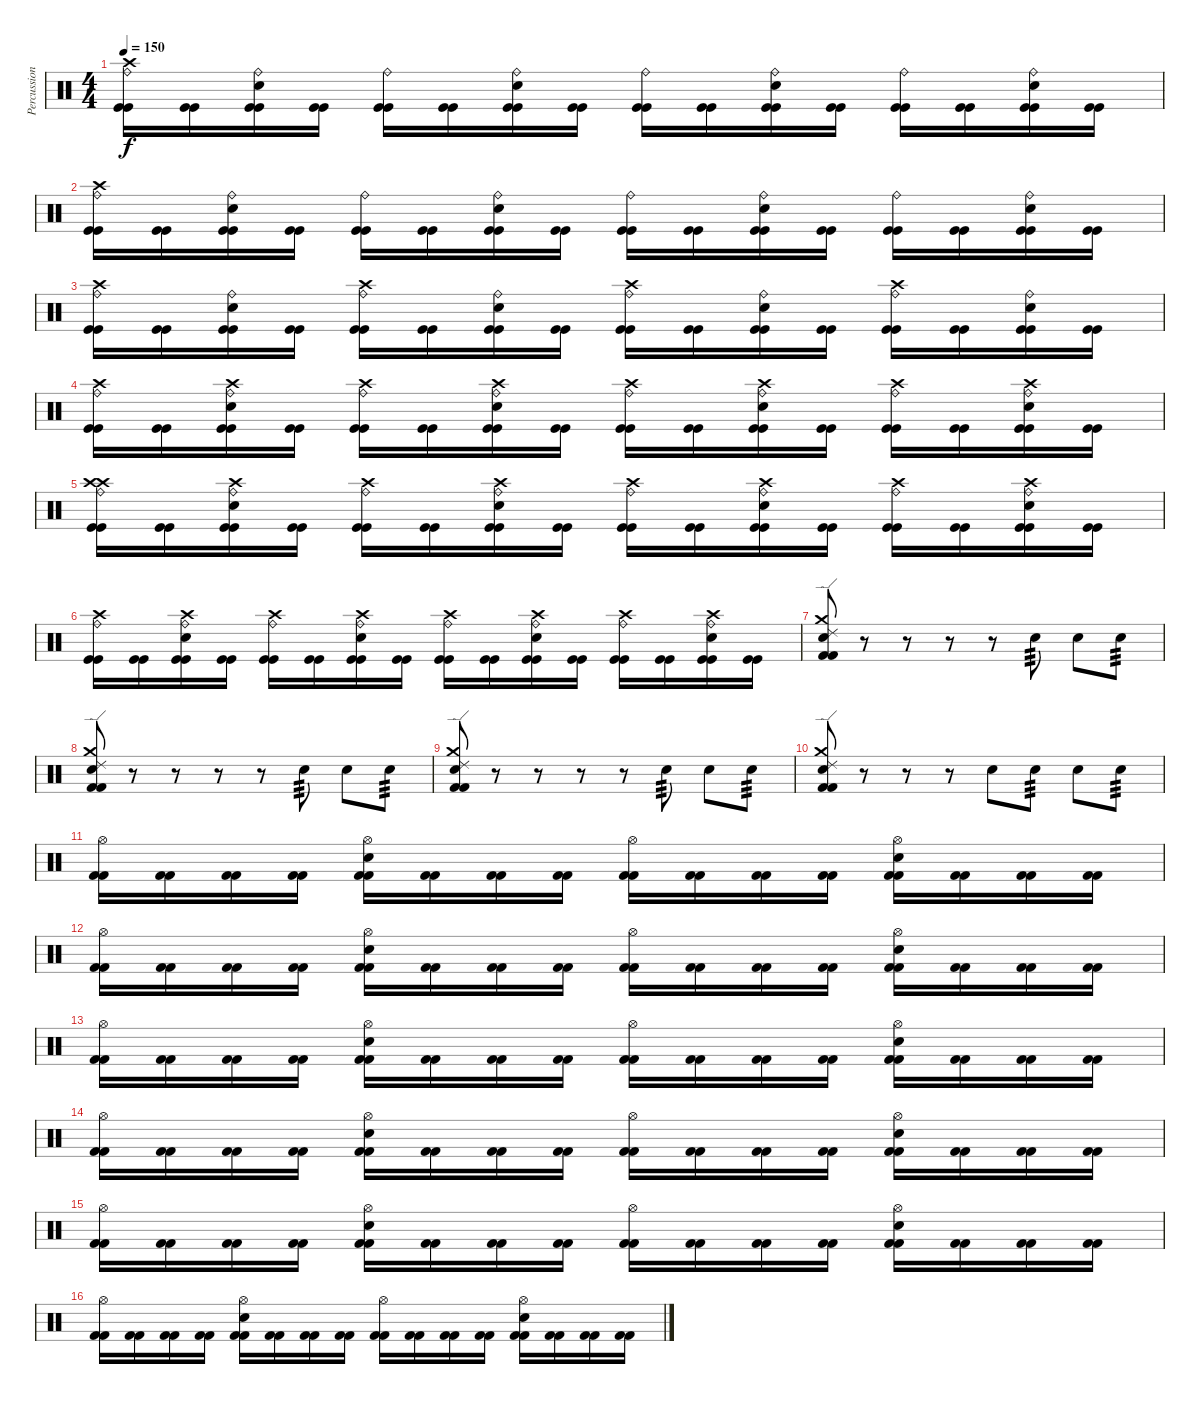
\track ("Percussions" "Percussion") {instrument percussion}
\staff {score}
\articulation defaults
\ts (4 4)
\tempo 150
\clef neutral
\ks c
("Kick (hit)" "Kick (hit)" "Crash high (hit)" "Ride (bell)").16{dy f} ("Kick (hit)" "Kick (hit)").16 ("Kick (hit)" "Kick (hit)" "Electric Snare (hit)" "Ride (bell)").16 ("Kick (hit)" "Kick (hit)").16 ("Kick (hit)" "Kick (hit)" "Ride (bell)").16 ("Kick (hit)" "Kick (hit)").16 ("Kick (hit)" "Kick (hit)" "Electric Snare (hit)" "Ride (bell)").16 ("Kick (hit)" "Kick (hit)").16 ("Kick (hit)" "Kick (hit)" "Ride (bell)").16 ("Kick (hit)" "Kick (hit)").16 ("Kick (hit)" "Kick (hit)" "Electric Snare (hit)" "Ride (bell)").16 ("Kick (hit)" "Kick (hit)").16 ("Kick (hit)" "Kick (hit)" "Ride (bell)").16 ("Kick (hit)" "Kick (hit)").16 ("Kick (hit)" "Kick (hit)" "Electric Snare (hit)" "Ride (bell)").16 ("Kick (hit)" "Kick (hit)").16 |
("Kick (hit)" "Kick (hit)" "Crash high (hit)" "Ride (bell)").16 ("Kick (hit)" "Kick (hit)").16 ("Kick (hit)" "Kick (hit)" "Electric Snare (hit)" "Ride (bell)").16 ("Kick (hit)" "Kick (hit)").16 ("Kick (hit)" "Kick (hit)" "Ride (bell)").16 ("Kick (hit)" "Kick (hit)").16 ("Kick (hit)" "Kick (hit)" "Electric Snare (hit)" "Ride (bell)").16 ("Kick (hit)" "Kick (hit)").16 ("Kick (hit)" "Kick (hit)" "Ride (bell)").16 ("Kick (hit)" "Kick (hit)").16 ("Kick (hit)" "Kick (hit)" "Electric Snare (hit)" "Ride (bell)").16 ("Kick (hit)" "Kick (hit)").16 ("Kick (hit)" "Kick (hit)" "Ride (bell)").16 ("Kick (hit)" "Kick (hit)").16 ("Kick (hit)" "Kick (hit)" "Electric Snare (hit)" "Ride (bell)").16 ("Kick (hit)" "Kick (hit)").16 |
("Kick (hit)" "Kick (hit)" "Ride (bell)" "Crash high (hit)").16 ("Kick (hit)" "Kick (hit)").16 ("Kick (hit)" "Kick (hit)" "Electric Snare (hit)" "Ride (bell)").16 ("Kick (hit)" "Kick (hit)").16 ("Kick (hit)" "Kick (hit)" "Ride (bell)" "Crash high (hit)").16 ("Kick (hit)" "Kick (hit)").16 ("Kick (hit)" "Kick (hit)" "Electric Snare (hit)" "Ride (bell)").16 ("Kick (hit)" "Kick (hit)").16 ("Kick (hit)" "Kick (hit)" "Ride (bell)" "Crash high (hit)").16 ("Kick (hit)" "Kick (hit)").16 ("Kick (hit)" "Kick (hit)" "Electric Snare (hit)" "Ride (bell)").16 ("Kick (hit)" "Kick (hit)").16 ("Kick (hit)" "Kick (hit)" "Ride (bell)" "Crash high (hit)").16 ("Kick (hit)" "Kick (hit)").16 ("Kick (hit)" "Kick (hit)" "Electric Snare (hit)" "Ride (bell)").16 ("Kick (hit)" "Kick (hit)").16 |
("Kick (hit)" "Kick (hit)" "Crash high (hit)" "Ride (bell)").16 ("Kick (hit)" "Kick (hit)").16 ("Kick (hit)" "Kick (hit)" "Electric Snare (hit)" "Ride (bell)" "Crash high (hit)").16 ("Kick (hit)" "Kick (hit)").16 ("Kick (hit)" "Kick (hit)" "Ride (bell)" "Crash high (hit)").16 ("Kick (hit)" "Kick (hit)").16 ("Kick (hit)" "Kick (hit)" "Electric Snare (hit)" "Ride (bell)" "Crash high (hit)").16 ("Kick (hit)" "Kick (hit)").16 ("Kick (hit)" "Kick (hit)" "Ride (bell)" "Crash high (hit)").16 ("Kick (hit)" "Kick (hit)").16 ("Kick (hit)" "Kick (hit)" "Electric Snare (hit)" "Ride (bell)" "Crash high (hit)").16 ("Kick (hit)" "Kick (hit)").16 ("Kick (hit)" "Kick (hit)" "Ride (bell)" "Crash high (hit)").16 ("Kick (hit)" "Kick (hit)").16 ("Kick (hit)" "Kick (hit)" "Electric Snare (hit)" "Ride (bell)" "Crash high (hit)").16 ("Kick (hit)" "Kick (hit)").16 |
("Kick (hit)" "Kick (hit)" "Crash high (hit)" "Ride (bell)" "Crash high (hit)").16 ("Kick (hit)" "Kick (hit)").16 ("Kick (hit)" "Kick (hit)" "Electric Snare (hit)" "Ride (bell)" "Crash high (hit)").16 ("Kick (hit)" "Kick (hit)").16 ("Kick (hit)" "Kick (hit)" "Ride (bell)" "Crash high (hit)").16 ("Kick (hit)" "Kick (hit)").16 ("Kick (hit)" "Kick (hit)" "Electric Snare (hit)" "Ride (bell)" "Crash high (hit)").16 ("Kick (hit)" "Kick (hit)").16 ("Kick (hit)" "Kick (hit)" "Ride (bell)" "Crash high (hit)").16 ("Kick (hit)" "Kick (hit)").16 ("Kick (hit)" "Kick (hit)" "Electric Snare (hit)" "Ride (bell)" "Crash high (hit)").16 ("Kick (hit)" "Kick (hit)").16 ("Kick (hit)" "Kick (hit)" "Ride (bell)" "Crash high (hit)").16 ("Kick (hit)" "Kick (hit)").16 ("Kick (hit)" "Kick (hit)" "Electric Snare (hit)" "Ride (bell)" "Crash high (hit)").16 ("Kick (hit)" "Kick (hit)").16 |
("Kick (hit)" "Kick (hit)" "Ride (bell)" "Crash high (hit)").16 ("Kick (hit)" "Kick (hit)").16 ("Kick (hit)" "Kick (hit)" "Electric Snare (hit)" "Ride (bell)" "Crash high (hit)").16 ("Kick (hit)" "Kick (hit)").16 ("Kick (hit)" "Kick (hit)" "Ride (bell)" "Crash high (hit)").16 ("Kick (hit)" "Kick (hit)").16 ("Kick (hit)" "Kick (hit)" "Electric Snare (hit)" "Ride (bell)" "Crash high (hit)").16 ("Kick (hit)" "Kick (hit)").16 ("Kick (hit)" "Kick (hit)" "Ride (bell)" "Crash high (hit)").16 ("Kick (hit)" "Kick (hit)").16 ("Kick (hit)" "Kick (hit)" "Electric Snare (hit)" "Ride (bell)" "Crash high (hit)").16 ("Kick (hit)" "Kick (hit)").16 ("Kick (hit)" "Kick (hit)" "Ride (bell)" "Crash high (hit)").16 ("Kick (hit)" "Kick (hit)").16 ("Kick (hit)" "Kick (hit)" "Electric Snare (hit)" "Ride (bell)" "Crash high (hit)").16 ("Kick (hit)" "Kick (hit)").16 |
("Ride (edge) 2" "Snare (hit) 2" "Crash medium (hit)" "Kick (hit) 2" "Kick (hit) 2").8 r.8 r.8 r.8 r.8 "Snare (hit) 2".8{tp 3} "Snare (hit) 2".8 "Snare (hit) 2".8{tp 3} |
("Ride (edge) 2" "Snare (hit) 2" "Crash medium (hit)" "Kick (hit) 2" "Kick (hit) 2").8 r.8 r.8 r.8 r.8 "Snare (hit) 2".8{tp 3} "Snare (hit) 2".8 "Snare (hit) 2".8{tp 3} |
("Ride (edge) 2" "Snare (hit) 2" "Crash medium (hit)" "Kick (hit) 2" "Kick (hit) 2").8 r.8 r.8 r.8 r.8 "Snare (hit) 2".8{tp 3} "Snare (hit) 2".8 "Snare (hit) 2".8{tp 3} |
("Ride (edge) 2" "Snare (hit) 2" "Crash medium (hit)" "Kick (hit) 2" "Kick (hit) 2").8 r.8 r.8 r.8 "Snare (hit) 2".8 "Snare (hit) 2".8{tp 3} "Snare (hit) 2".8 "Snare (hit) 2".8{tp 3} |
("Hi-Hat (open)" "Kick (hit) 2" "Kick (hit) 2").16 ("Kick (hit) 2" "Kick (hit) 2").16 ("Kick (hit) 2" "Kick (hit) 2").16 ("Kick (hit) 2" "Kick (hit) 2").16 ("Snare (hit) 2" "Hi-Hat (open)" "Kick (hit) 2" "Kick (hit) 2").16 ("Kick (hit) 2" "Kick (hit) 2").16 ("Kick (hit) 2" "Kick (hit) 2").16 ("Kick (hit) 2" "Kick (hit) 2").16 ("Hi-Hat (open)" "Kick (hit) 2" "Kick (hit) 2").16 ("Kick (hit) 2" "Kick (hit) 2").16 ("Kick (hit) 2" "Kick (hit) 2").16 ("Kick (hit) 2" "Kick (hit) 2").16 ("Snare (hit) 2" "Hi-Hat (open)" "Kick (hit) 2" "Kick (hit) 2").16 ("Kick (hit) 2" "Kick (hit) 2").16 ("Kick (hit) 2" "Kick (hit) 2").16 ("Kick (hit) 2" "Kick (hit) 2").16 |
("Hi-Hat (open)" "Kick (hit) 2" "Kick (hit) 2").16 ("Kick (hit) 2" "Kick (hit) 2").16 ("Kick (hit) 2" "Kick (hit) 2").16 ("Kick (hit) 2" "Kick (hit) 2").16 ("Snare (hit) 2" "Hi-Hat (open)" "Kick (hit) 2" "Kick (hit) 2").16 ("Kick (hit) 2" "Kick (hit) 2").16 ("Kick (hit) 2" "Kick (hit) 2").16 ("Kick (hit) 2" "Kick (hit) 2").16 ("Hi-Hat (open)" "Kick (hit) 2" "Kick (hit) 2").16 ("Kick (hit) 2" "Kick (hit) 2").16 ("Kick (hit) 2" "Kick (hit) 2").16 ("Kick (hit) 2" "Kick (hit) 2").16 ("Snare (hit) 2" "Hi-Hat (open)" "Kick (hit) 2" "Kick (hit) 2").16 ("Kick (hit) 2" "Kick (hit) 2").16 ("Kick (hit) 2" "Kick (hit) 2").16 ("Kick (hit) 2" "Kick (hit) 2").16 |
("Hi-Hat (open)" "Kick (hit) 2" "Kick (hit) 2").16 ("Kick (hit) 2" "Kick (hit) 2").16 ("Kick (hit) 2" "Kick (hit) 2").16 ("Kick (hit) 2" "Kick (hit) 2").16 ("Snare (hit) 2" "Hi-Hat (open)" "Kick (hit) 2" "Kick (hit) 2").16 ("Kick (hit) 2" "Kick (hit) 2").16 ("Kick (hit) 2" "Kick (hit) 2").16 ("Kick (hit) 2" "Kick (hit) 2").16 ("Hi-Hat (open)" "Kick (hit) 2" "Kick (hit) 2").16 ("Kick (hit) 2" "Kick (hit) 2").16 ("Kick (hit) 2" "Kick (hit) 2").16 ("Kick (hit) 2" "Kick (hit) 2").16 ("Snare (hit) 2" "Hi-Hat (open)" "Kick (hit) 2" "Kick (hit) 2").16 ("Kick (hit) 2" "Kick (hit) 2").16 ("Kick (hit) 2" "Kick (hit) 2").16 ("Kick (hit) 2" "Kick (hit) 2").16 |
("Hi-Hat (open)" "Kick (hit) 2" "Kick (hit) 2").16 ("Kick (hit) 2" "Kick (hit) 2").16 ("Kick (hit) 2" "Kick (hit) 2").16 ("Kick (hit) 2" "Kick (hit) 2").16 ("Snare (hit) 2" "Hi-Hat (open)" "Kick (hit) 2" "Kick (hit) 2").16 ("Kick (hit) 2" "Kick (hit) 2").16 ("Kick (hit) 2" "Kick (hit) 2").16 ("Kick (hit) 2" "Kick (hit) 2").16 ("Hi-Hat (open)" "Kick (hit) 2" "Kick (hit) 2").16 ("Kick (hit) 2" "Kick (hit) 2").16 ("Kick (hit) 2" "Kick (hit) 2").16 ("Kick (hit) 2" "Kick (hit) 2").16 ("Snare (hit) 2" "Hi-Hat (open)" "Kick (hit) 2" "Kick (hit) 2").16 ("Kick (hit) 2" "Kick (hit) 2").16 ("Kick (hit) 2" "Kick (hit) 2").16 ("Kick (hit) 2" "Kick (hit) 2").16 |
("Hi-Hat (open)" "Kick (hit) 2" "Kick (hit) 2").16 ("Kick (hit) 2" "Kick (hit) 2").16 ("Kick (hit) 2" "Kick (hit) 2").16 ("Kick (hit) 2" "Kick (hit) 2").16 ("Snare (hit) 2" "Hi-Hat (open)" "Kick (hit) 2" "Kick (hit) 2").16 ("Kick (hit) 2" "Kick (hit) 2").16 ("Kick (hit) 2" "Kick (hit) 2").16 ("Kick (hit) 2" "Kick (hit) 2").16 ("Hi-Hat (open)" "Kick (hit) 2" "Kick (hit) 2").16 ("Kick (hit) 2" "Kick (hit) 2").16 ("Kick (hit) 2" "Kick (hit) 2").16 ("Kick (hit) 2" "Kick (hit) 2").16 ("Snare (hit) 2" "Hi-Hat (open)" "Kick (hit) 2" "Kick (hit) 2").16 ("Kick (hit) 2" "Kick (hit) 2").16 ("Kick (hit) 2" "Kick (hit) 2").16 ("Kick (hit) 2" "Kick (hit) 2").16 |
("Hi-Hat (open)" "Kick (hit) 2" "Kick (hit) 2").16 ("Kick (hit) 2" "Kick (hit) 2").16 ("Kick (hit) 2" "Kick (hit) 2").16 ("Kick (hit) 2" "Kick (hit) 2").16 ("Snare (hit) 2" "Hi-Hat (open)" "Kick (hit) 2" "Kick (hit) 2").16 ("Kick (hit) 2" "Kick (hit) 2").16 ("Kick (hit) 2" "Kick (hit) 2").16 ("Kick (hit) 2" "Kick (hit) 2").16 ("Hi-Hat (open)" "Kick (hit) 2" "Kick (hit) 2").16 ("Kick (hit) 2" "Kick (hit) 2").16 ("Kick (hit) 2" "Kick (hit) 2").16 ("Kick (hit) 2" "Kick (hit) 2").16 ("Snare (hit) 2" "Hi-Hat (open)" "Kick (hit) 2" "Kick (hit) 2").16 ("Kick (hit) 2" "Kick (hit) 2").16 ("Kick (hit) 2" "Kick (hit) 2").16 ("Kick (hit) 2" "Kick (hit) 2").16
